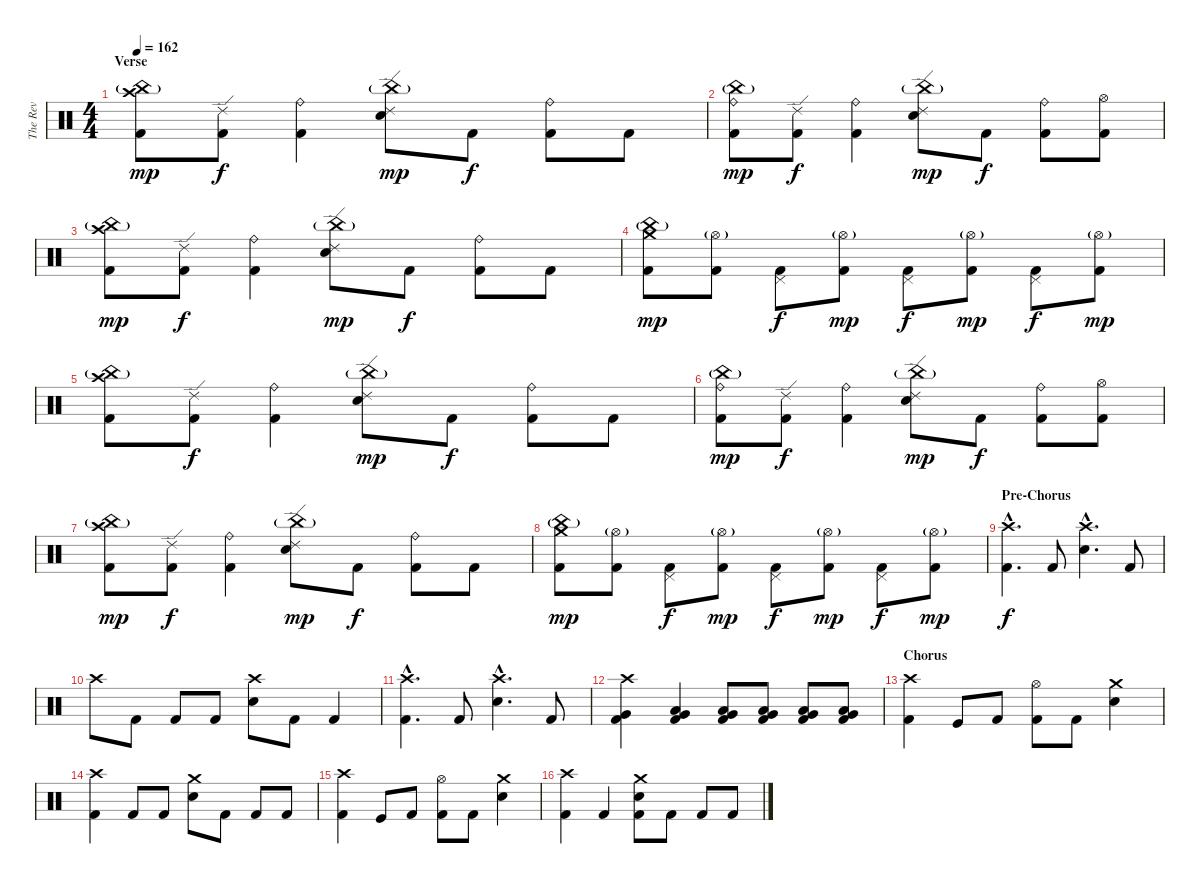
\track ("The Rev" "The Rev") {instrument percussion}
\staff {score}
\articulation defaults
\ts (4 4)
\section ("" "Verse")
\tempo 162
\clef neutral
\ks c
("Crash high (hit)" "China (hit)"{g} "Kick (hit) 2").8{dy mp} ("Ride (edge) 2" "Kick (hit) 2").8{dy f} ("Ride (bell)" "Kick (hit) 2").4 ("Ride (edge) 2" "China (hit)"{g} "Electric Snare (hit)").8{dy mp} "Kick (hit) 2".8{dy f} ("Ride (bell)" "Kick (hit) 2").8 "Kick (hit) 2".8 |
("Ride (bell)" "China (hit)"{g} "Kick (hit) 2").8{dy mp} ("Ride (edge) 2" "Kick (hit) 2").8{dy f} ("Ride (bell)" "Kick (hit) 2").4 ("Ride (edge) 2" "China (hit)"{g} "Electric Snare (hit)").8{dy mp} "Kick (hit) 2".8{dy f} ("Ride (bell)" "Kick (hit) 2").8 ("Hi-Hat (open)" "Kick (hit) 2").8 |
("Crash high (hit)" "China (hit)"{g} "Kick (hit) 2").8{dy mp} ("Ride (edge) 2" "Kick (hit) 2").8{dy f} ("Ride (bell)" "Kick (hit) 2").4 ("Ride (edge) 2" "China (hit)"{g} "Electric Snare (hit)").8{dy mp} "Kick (hit) 2".8{dy f} ("Ride (bell)" "Kick (hit) 2").8 "Kick (hit) 2".8 |
("Crash medium (hit)" "China (hit)"{g} "Kick (hit) 2").8{dy mp} ("Hi-Hat (open)"{g} "Kick (hit) 2").8 ("Pedal Hi-Hat (hit)" "Kick (hit) 2").8{dy f} ("Hi-Hat (open)"{g} "Kick (hit) 2").8{dy mp} ("Pedal Hi-Hat (hit)" "Kick (hit) 2").8{dy f} ("Hi-Hat (open)"{g} "Kick (hit) 2").8{dy mp} ("Pedal Hi-Hat (hit)" "Kick (hit) 2").8{dy f} ("Hi-Hat (open)"{g} "Kick (hit) 2").8{dy mp} |
("Crash high (hit)" "China (hit)"{g} "Kick (hit) 2").8 ("Ride (edge) 2" "Kick (hit) 2").8{dy f} ("Ride (bell)" "Kick (hit) 2").4 ("Ride (edge) 2" "China (hit)"{g} "Electric Snare (hit)").8{dy mp} "Kick (hit) 2".8{dy f} ("Ride (bell)" "Kick (hit) 2").8 "Kick (hit) 2".8 |
("Ride (bell)" "China (hit)"{g} "Kick (hit) 2").8{dy mp} ("Ride (edge) 2" "Kick (hit) 2").8{dy f} ("Ride (bell)" "Kick (hit) 2").4 ("Ride (edge) 2" "China (hit)"{g} "Electric Snare (hit)").8{dy mp} "Kick (hit) 2".8{dy f} ("Ride (bell)" "Kick (hit) 2").8 ("Hi-Hat (open)" "Kick (hit) 2").8 |
("Crash high (hit)" "China (hit)"{g} "Kick (hit) 2").8{dy mp} ("Ride (edge) 2" "Kick (hit) 2").8{dy f} ("Ride (bell)" "Kick (hit) 2").4 ("Ride (edge) 2" "China (hit)"{g} "Electric Snare (hit)").8{dy mp} "Kick (hit) 2".8{dy f} ("Ride (bell)" "Kick (hit) 2").8 "Kick (hit) 2".8 |
("Crash medium (hit)" "China (hit)"{g} "Kick (hit) 2").8{dy mp} ("Hi-Hat (open)"{g} "Kick (hit) 2").8 ("Pedal Hi-Hat (hit)" "Kick (hit) 2").8{dy f} ("Hi-Hat (open)"{g} "Kick (hit) 2").8{dy mp} ("Pedal Hi-Hat (hit)" "Kick (hit) 2").8{dy f} ("Hi-Hat (open)"{g} "Kick (hit) 2").8{dy mp} ("Pedal Hi-Hat (hit)" "Kick (hit) 2").8{dy f} ("Hi-Hat (open)"{g} "Kick (hit) 2").8{dy mp} |
\section ("" "Pre-Chorus")
("Crash high (hit)"{hac} "Kick (hit) 2"{hac}).4{d dy f} "Kick (hit) 2".8 ("Crash high (hit)"{hac} "Electric Snare (hit)"{hac}).4{d} "Kick (hit) 2".8 |
"Crash high (hit)".8 "Kick (hit) 2".8 "Kick (hit) 2".8 "Kick (hit) 2".8 ("Crash high (hit)" "Electric Snare (hit)").8 "Kick (hit) 2".8 "Kick (hit) 2".4 |
("Crash high (hit)"{hac} "Kick (hit) 2"{hac}).4{d} "Kick (hit) 2".8 ("Crash high (hit)"{hac} "Electric Snare (hit)"{hac}).4{d} "Kick (hit) 2".8 |
("Crash high (hit)" "Very Low Tom (hit)" "Kick (hit) 2").4 ("Low Floor Tom (hit)" "Very Low Tom (hit)" "Kick (hit) 2").4 ("Low Floor Tom (hit)" "Very Low Tom (hit)" "Kick (hit) 2").8 ("Low Floor Tom (hit)" "Very Low Tom (hit)" "Kick (hit) 2").8 ("Low Floor Tom (hit)" "Very Low Tom (hit)" "Kick (hit) 2").8 ("Low Floor Tom (hit)" "Very Low Tom (hit)" "Kick (hit) 2").8 |
\section ("" "Chorus")
("Crash high (hit)" "Kick (hit) 2").4 "Kick (hit)".8 "Kick (hit) 2".8 ("Hi-Hat (open)" "Kick (hit) 2").8 "Kick (hit) 2".8 ("Crash medium (hit)" "Electric Snare (hit)").4 |
("Crash high (hit)" "Kick (hit) 2").4 "Kick (hit) 2".8 "Kick (hit) 2".8 ("Crash medium (hit)" "Electric Snare (hit)").8 "Kick (hit) 2".8 "Kick (hit) 2".8 "Kick (hit) 2".8 |
("Crash high (hit)" "Kick (hit) 2").4 "Kick (hit)".8 "Kick (hit) 2".8 ("Hi-Hat (open)" "Kick (hit) 2").8 "Kick (hit) 2".8 ("Crash medium (hit)" "Electric Snare (hit)").4 |
("Crash high (hit)" "Kick (hit) 2").4 "Kick (hit) 2".4 ("Crash medium (hit)" "Electric Snare (hit)" "Kick (hit) 2").8 "Kick (hit) 2".8 "Kick (hit) 2".8 "Kick (hit) 2".8
